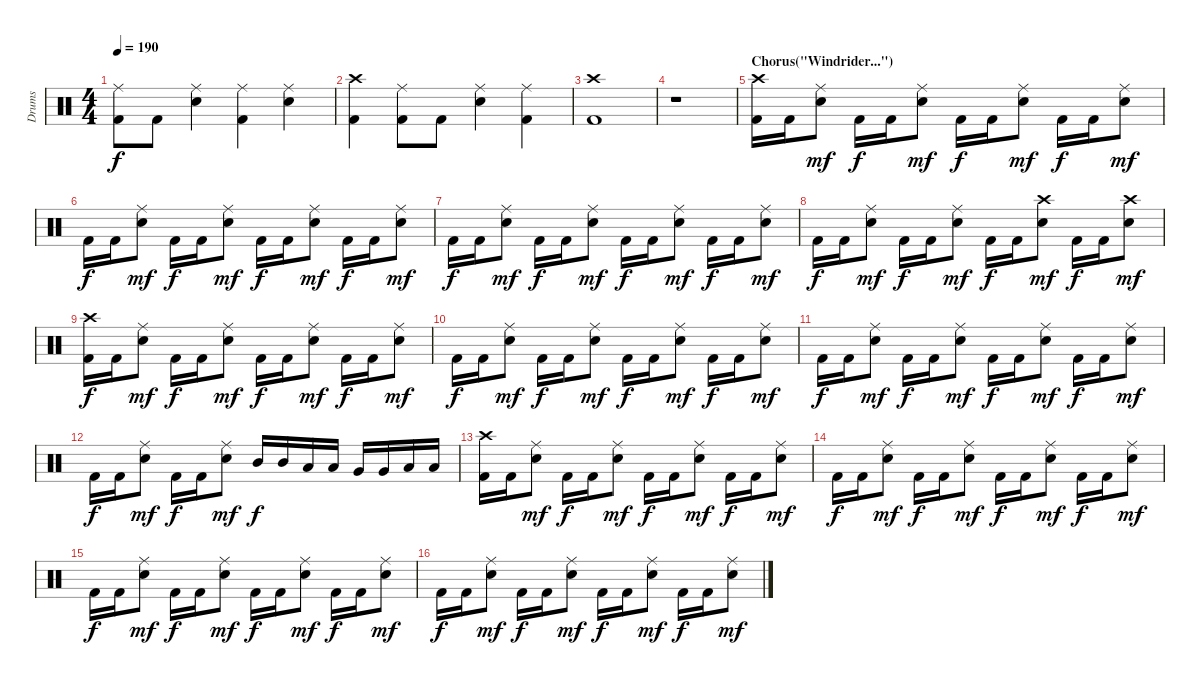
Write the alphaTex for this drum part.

\track ("Drums" "Drums") {instrument percussion}
\staff {score}
\articulation defaults
\ts (4 4)
\tempo 190
\clef neutral
\ks c
("Ride (middle)" "Kick (hit) 2").8{dy f} "Kick (hit) 2".8 ("Ride (middle)" "Snare (hit) 2").4 ("Ride (middle)" "Kick (hit) 2").4 ("Ride (middle)" "Snare (hit) 2").4 |
("Crash high (hit)" "Kick (hit) 2").4 ("Ride (middle)" "Kick (hit) 2").8 "Kick (hit) 2".8 ("Ride (middle)" "Snare (hit) 2").4 ("Ride (middle)" "Kick (hit) 2").4 |
("Crash high (hit)" "Kick (hit) 2").1 |
r.1 |
\section ("" "Chorus(\"Windrider...\")")
("Crash high (hit)" "Kick (hit) 2").16 "Kick (hit) 2".16 ("Ride (middle)" "Snare (hit) 2").8{dy mf} "Kick (hit) 2".16{dy f} "Kick (hit) 2".16 ("Ride (middle)" "Snare (hit) 2").8{dy mf} "Kick (hit) 2".16{dy f} "Kick (hit) 2".16 ("Ride (middle)" "Snare (hit) 2").8{dy mf} "Kick (hit) 2".16{dy f} "Kick (hit) 2".16 ("Ride (middle)" "Snare (hit) 2").8{dy mf} |
"Kick (hit) 2".16{dy f} "Kick (hit) 2".16 ("Ride (middle)" "Snare (hit) 2").8{dy mf} "Kick (hit) 2".16{dy f} "Kick (hit) 2".16 ("Ride (middle)" "Snare (hit) 2").8{dy mf} "Kick (hit) 2".16{dy f} "Kick (hit) 2".16 ("Ride (middle)" "Snare (hit) 2").8{dy mf} "Kick (hit) 2".16{dy f} "Kick (hit) 2".16 ("Ride (middle)" "Snare (hit) 2").8{dy mf} |
"Kick (hit) 2".16{dy f} "Kick (hit) 2".16 ("Ride (middle)" "Snare (hit) 2").8{dy mf} "Kick (hit) 2".16{dy f} "Kick (hit) 2".16 ("Ride (middle)" "Snare (hit) 2").8{dy mf} "Kick (hit) 2".16{dy f} "Kick (hit) 2".16 ("Ride (middle)" "Snare (hit) 2").8{dy mf} "Kick (hit) 2".16{dy f} "Kick (hit) 2".16 ("Ride (middle)" "Snare (hit) 2").8{dy mf} |
"Kick (hit) 2".16{dy f} "Kick (hit) 2".16 ("Ride (middle)" "Snare (hit) 2").8{dy mf} "Kick (hit) 2".16{dy f} "Kick (hit) 2".16 ("Ride (middle)" "Snare (hit) 2").8{dy mf} "Kick (hit) 2".16{dy f} "Kick (hit) 2".16 ("Crash high (hit)" "Snare (hit) 2").8{dy mf} "Kick (hit) 2".16{dy f} "Kick (hit) 2".16 ("Crash high (hit)" "Snare (hit) 2").8{dy mf} |
("Crash high (hit)" "Kick (hit) 2").16{dy f} "Kick (hit) 2".16 ("Ride (middle)" "Snare (hit) 2").8{dy mf} "Kick (hit) 2".16{dy f} "Kick (hit) 2".16 ("Ride (middle)" "Snare (hit) 2").8{dy mf} "Kick (hit) 2".16{dy f} "Kick (hit) 2".16 ("Ride (middle)" "Snare (hit) 2").8{dy mf} "Kick (hit) 2".16{dy f} "Kick (hit) 2".16 ("Ride (middle)" "Snare (hit) 2").8{dy mf} |
"Kick (hit) 2".16{dy f} "Kick (hit) 2".16 ("Ride (middle)" "Snare (hit) 2").8{dy mf} "Kick (hit) 2".16{dy f} "Kick (hit) 2".16 ("Ride (middle)" "Snare (hit) 2").8{dy mf} "Kick (hit) 2".16{dy f} "Kick (hit) 2".16 ("Ride (middle)" "Snare (hit) 2").8{dy mf} "Kick (hit) 2".16{dy f} "Kick (hit) 2".16 ("Ride (middle)" "Snare (hit) 2").8{dy mf} |
"Kick (hit) 2".16{dy f} "Kick (hit) 2".16 ("Ride (middle)" "Snare (hit) 2").8{dy mf} "Kick (hit) 2".16{dy f} "Kick (hit) 2".16 ("Ride (middle)" "Snare (hit) 2").8{dy mf} "Kick (hit) 2".16{dy f} "Kick (hit) 2".16 ("Ride (middle)" "Snare (hit) 2").8{dy mf} "Kick (hit) 2".16{dy f} "Kick (hit) 2".16 ("Ride (middle)" "Snare (hit) 2").8{dy mf} |
"Kick (hit) 2".16{dy f} "Kick (hit) 2".16 ("Ride (middle)" "Snare (hit) 2").8{dy mf} "Kick (hit) 2".16{dy f} "Kick (hit) 2".16 ("Ride (middle)" "Snare (hit) 2").8{dy mf} "Mid Tom (hit)".16{dy f} "Mid Tom (hit)".16 "Low Tom (hit)".16 "Low Tom (hit)".16 "Very Low Tom (hit)".16 "Very Low Tom (hit)".16 "Low Floor Tom (hit)".16 "Low Floor Tom (hit)".16 |
("Crash high (hit)" "Kick (hit) 2").16 "Kick (hit) 2".16 ("Ride (middle)" "Snare (hit) 2").8{dy mf} "Kick (hit) 2".16{dy f} "Kick (hit) 2".16 ("Ride (middle)" "Snare (hit) 2").8{dy mf} "Kick (hit) 2".16{dy f} "Kick (hit) 2".16 ("Ride (middle)" "Snare (hit) 2").8{dy mf} "Kick (hit) 2".16{dy f} "Kick (hit) 2".16 ("Ride (middle)" "Snare (hit) 2").8{dy mf} |
"Kick (hit) 2".16{dy f} "Kick (hit) 2".16 ("Ride (middle)" "Snare (hit) 2").8{dy mf} "Kick (hit) 2".16{dy f} "Kick (hit) 2".16 ("Ride (middle)" "Snare (hit) 2").8{dy mf} "Kick (hit) 2".16{dy f} "Kick (hit) 2".16 ("Ride (middle)" "Snare (hit) 2").8{dy mf} "Kick (hit) 2".16{dy f} "Kick (hit) 2".16 ("Ride (middle)" "Snare (hit) 2").8{dy mf} |
"Kick (hit) 2".16{dy f} "Kick (hit) 2".16 ("Ride (middle)" "Snare (hit) 2").8{dy mf} "Kick (hit) 2".16{dy f} "Kick (hit) 2".16 ("Ride (middle)" "Snare (hit) 2").8{dy mf} "Kick (hit) 2".16{dy f} "Kick (hit) 2".16 ("Ride (middle)" "Snare (hit) 2").8{dy mf} "Kick (hit) 2".16{dy f} "Kick (hit) 2".16 ("Ride (middle)" "Snare (hit) 2").8{dy mf} |
"Kick (hit) 2".16{dy f} "Kick (hit) 2".16 ("Ride (middle)" "Snare (hit) 2").8{dy mf} "Kick (hit) 2".16{dy f} "Kick (hit) 2".16 ("Ride (middle)" "Snare (hit) 2").8{dy mf} "Kick (hit) 2".16{dy f} "Kick (hit) 2".16 ("Ride (middle)" "Snare (hit) 2").8{dy mf} "Kick (hit) 2".16{dy f} "Kick (hit) 2".16 ("Ride (middle)" "Snare (hit) 2").8{dy mf}
